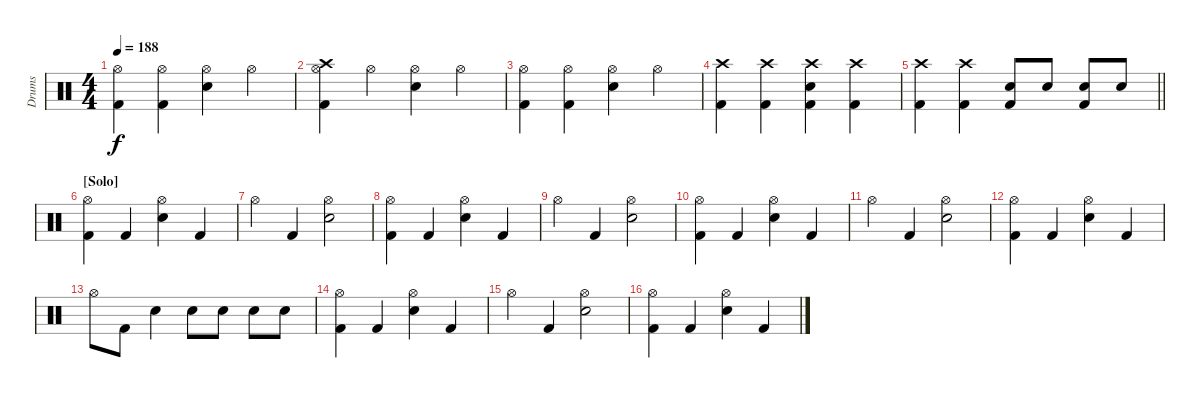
\track ("Drums" "Drums") {instrument percussion}
\staff {score}
\articulation defaults
\ts (4 4)
\tempo 188
\clef neutral
\ks c
("Hi-Hat (open)" "Kick (hit) 2").4{dy f} ("Hi-Hat (open)" "Kick (hit) 2").4 ("Hi-Hat (open)" "Electric Snare (hit)").4 "Hi-Hat (open)".4 |
("Crash high (hit)" "Hi-Hat (open)" "Kick (hit) 2").4 "Hi-Hat (open)".4 ("Hi-Hat (open)" "Electric Snare (hit)").4 "Hi-Hat (open)".4 |
("Hi-Hat (open)" "Kick (hit) 2").4 ("Hi-Hat (open)" "Kick (hit) 2").4 ("Hi-Hat (open)" "Electric Snare (hit)").4 "Hi-Hat (open)".4 |
("Crash high (hit)" "Kick (hit) 2").4 ("Crash high (hit)" "Kick (hit) 2").4 ("Crash high (hit)" "Electric Snare (hit)" "Kick (hit) 2").4 ("Crash high (hit)" "Kick (hit) 2").4 |
\barLineRight lightlight
("Crash high (hit)" "Kick (hit) 2").4 ("Crash high (hit)" "Kick (hit) 2").4 ("Electric Snare (hit)" "Kick (hit) 2").8 "Electric Snare (hit)".8 ("Electric Snare (hit)" "Kick (hit) 2").8 "Electric Snare (hit)".8 |
\section ("" "[Solo]")
("Hi-Hat (open)" "Kick (hit) 2").4 "Kick (hit) 2".4 ("Hi-Hat (open)" "Electric Snare (hit)").4 "Kick (hit) 2".4 |
"Hi-Hat (open)".4 "Kick (hit) 2".4 ("Hi-Hat (open)" "Electric Snare (hit)").2 |
("Hi-Hat (open)" "Kick (hit) 2").4 "Kick (hit) 2".4 ("Hi-Hat (open)" "Electric Snare (hit)").4 "Kick (hit) 2".4 |
"Hi-Hat (open)".4 "Kick (hit) 2".4 ("Hi-Hat (open)" "Electric Snare (hit)").2 |
("Hi-Hat (open)" "Kick (hit) 2").4 "Kick (hit) 2".4 ("Hi-Hat (open)" "Electric Snare (hit)").4 "Kick (hit) 2".4 |
"Hi-Hat (open)".4 "Kick (hit) 2".4 ("Hi-Hat (open)" "Electric Snare (hit)").2 |
("Hi-Hat (open)" "Kick (hit) 2").4 "Kick (hit) 2".4 ("Hi-Hat (open)" "Electric Snare (hit)").4 "Kick (hit) 2".4 |
"Hi-Hat (open)".8 "Kick (hit) 2".8 "Electric Snare (hit)".4 "Electric Snare (hit)".8 "Electric Snare (hit)".8 "Electric Snare (hit)".8 "Electric Snare (hit)".8 |
("Hi-Hat (open)" "Kick (hit) 2").4 "Kick (hit) 2".4 ("Hi-Hat (open)" "Electric Snare (hit)").4 "Kick (hit) 2".4 |
"Hi-Hat (open)".4 "Kick (hit) 2".4 ("Hi-Hat (open)" "Electric Snare (hit)").2 |
("Hi-Hat (open)" "Kick (hit) 2").4 "Kick (hit) 2".4 ("Hi-Hat (open)" "Electric Snare (hit)").4 "Kick (hit) 2".4
